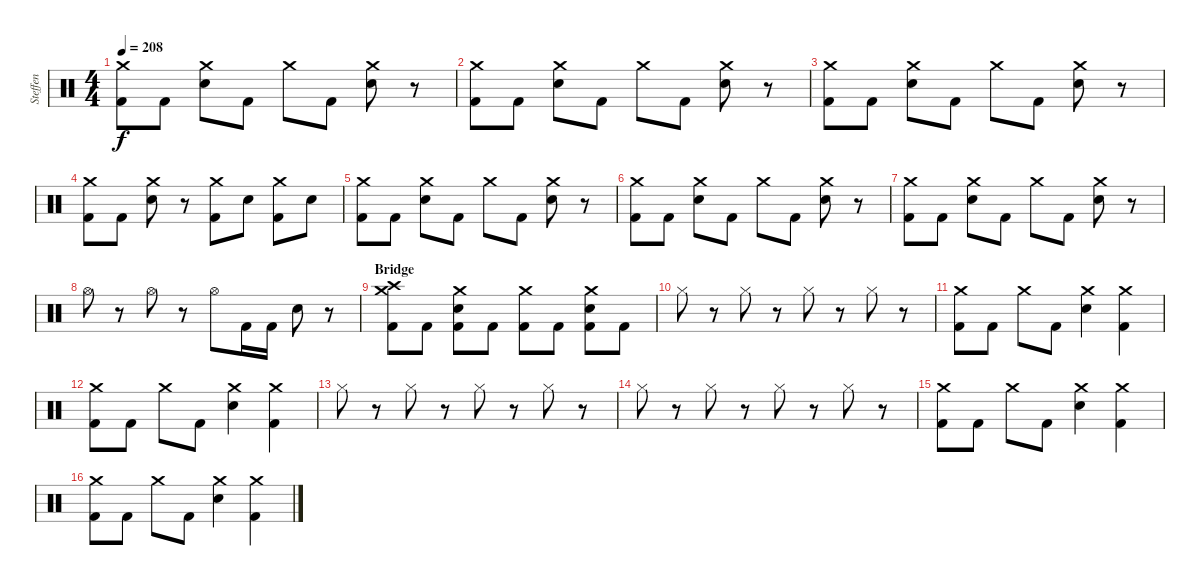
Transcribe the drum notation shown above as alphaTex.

\track ("Steffen" "Steffen") {instrument percussion}
\staff {score}
\articulation defaults
\ts (4 4)
\tempo 208
\clef neutral
\ks c
("Crash medium (hit)" "Kick (hit) 2").8{dy f} "Kick (hit) 2".8 ("Crash medium (hit)" "Snare (hit) 2").8 "Kick (hit) 2".8 "Crash medium (hit)".8 "Kick (hit) 2".8 ("Crash medium (hit)" "Snare (hit) 2").8 r.8 |
("Crash medium (hit)" "Kick (hit) 2").8 "Kick (hit) 2".8 ("Crash medium (hit)" "Snare (hit) 2").8 "Kick (hit) 2".8 "Crash medium (hit)".8 "Kick (hit) 2".8 ("Crash medium (hit)" "Snare (hit) 2").8 r.8 |
("Crash medium (hit)" "Kick (hit) 2").8 "Kick (hit) 2".8 ("Crash medium (hit)" "Snare (hit) 2").8 "Kick (hit) 2".8 "Crash medium (hit)".8 "Kick (hit) 2".8 ("Crash medium (hit)" "Snare (hit) 2").8 r.8 |
("Crash medium (hit)" "Kick (hit) 2").8 "Kick (hit) 2".8 ("Crash medium (hit)" "Snare (hit) 2").8 r.8 ("Crash medium (hit)" "Kick (hit) 2").8 "Snare (hit) 2".8 ("Crash medium (hit)" "Kick (hit) 2").8 "Snare (hit) 2".8 |
("Crash medium (hit)" "Kick (hit) 2").8 "Kick (hit) 2".8 ("Crash medium (hit)" "Snare (hit) 2").8 "Kick (hit) 2".8 "Crash medium (hit)".8 "Kick (hit) 2".8 ("Crash medium (hit)" "Snare (hit) 2").8 r.8 |
("Crash medium (hit)" "Kick (hit) 2").8 "Kick (hit) 2".8 ("Crash medium (hit)" "Snare (hit) 2").8 "Kick (hit) 2".8 "Crash medium (hit)".8 "Kick (hit) 2".8 ("Crash medium (hit)" "Snare (hit) 2").8 r.8 |
("Crash medium (hit)" "Kick (hit) 2").8 "Kick (hit) 2".8 ("Crash medium (hit)" "Snare (hit) 2").8 "Kick (hit) 2".8 "Crash medium (hit)".8 "Kick (hit) 2".8 ("Crash medium (hit)" "Snare (hit) 2").8 r.8 |
"Hi-Hat (open)".8 r.8 "Hi-Hat (open)".8 r.8 "Hi-Hat (open)".8 "Kick (hit) 2".16 "Kick (hit) 2".16 "Snare (hit) 2".8 r.8 |
\section ("" "Bridge")
("Crash medium (hit)" "Crash high (hit)" "Kick (hit) 2").8 "Kick (hit) 2".8 ("Crash medium (hit)" "Snare (hit) 2" "Kick (hit) 2").8 "Kick (hit) 2".8 ("Crash medium (hit)" "Kick (hit) 2").8 "Kick (hit) 2".8 ("Crash medium (hit)" "Snare (hit) 2" "Kick (hit) 2").8 "Kick (hit) 2".8 |
"Hi-Hat (closed)".8 r.8 "Hi-Hat (closed)".8 r.8 "Hi-Hat (closed)".8 r.8 "Hi-Hat (closed)".8 r.8 |
("Crash medium (hit)" "Kick (hit) 2").8 "Kick (hit) 2".8 "Crash medium (hit)".8 "Kick (hit) 2".8 ("Crash medium (hit)" "Electric Snare (hit)").4 ("Crash medium (hit)" "Kick (hit) 2").4 |
("Crash medium (hit)" "Kick (hit) 2").8 "Kick (hit) 2".8 "Crash medium (hit)".8 "Kick (hit) 2".8 ("Crash medium (hit)" "Electric Snare (hit)").4 ("Crash medium (hit)" "Kick (hit) 2").4 |
"Hi-Hat (closed)".8 r.8 "Hi-Hat (closed)".8 r.8 "Hi-Hat (closed)".8 r.8 "Hi-Hat (closed)".8 r.8 |
"Hi-Hat (closed)".8 r.8 "Hi-Hat (closed)".8 r.8 "Hi-Hat (closed)".8 r.8 "Hi-Hat (closed)".8 r.8 |
("Crash medium (hit)" "Kick (hit) 2").8 "Kick (hit) 2".8 "Crash medium (hit)".8 "Kick (hit) 2".8 ("Crash medium (hit)" "Electric Snare (hit)").4 ("Crash medium (hit)" "Kick (hit) 2").4 |
("Crash medium (hit)" "Kick (hit) 2").8 "Kick (hit) 2".8 "Crash medium (hit)".8 "Kick (hit) 2".8 ("Crash medium (hit)" "Electric Snare (hit)").4 ("Crash medium (hit)" "Kick (hit) 2").4
